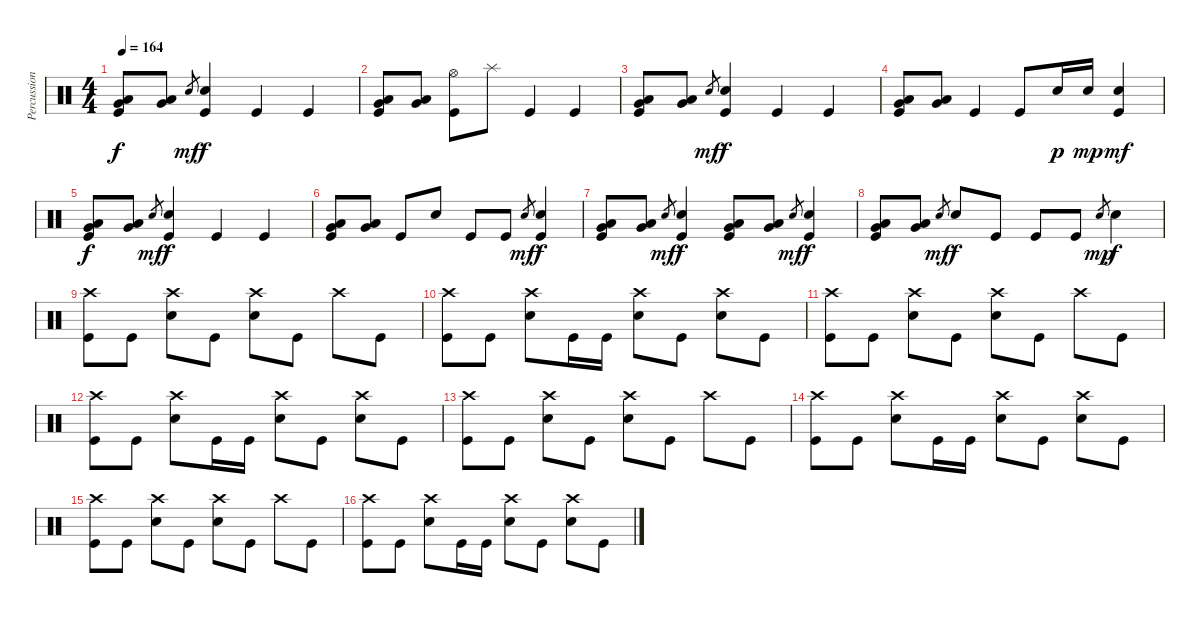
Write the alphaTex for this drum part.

\track ("Percussion" "Percussion") {instrument percussion}
\staff {score}
\articulation defaults
\ts (4 4)
\tempo 164
\clef neutral
\ks c
("Low Tom (hit)" "Very Low Tom (hit)" "Kick (hit)").8{dy f} ("Low Tom (hit)" "Very Low Tom (hit)").8 "Electric Snare (hit)".8{gr dy mf} ("Electric Snare (hit)" "Kick (hit)").4{dy f} "Kick (hit)".4 "Kick (hit)".4 |
("Low Tom (hit)" "Very Low Tom (hit)" "Kick (hit)").8 ("Low Tom (hit)" "Very Low Tom (hit)").8 ("Hi-Hat (open)" "Kick (hit)").8 "Splash (hit)".8 "Kick (hit)".4 "Kick (hit)".4 |
("Low Tom (hit)" "Very Low Tom (hit)" "Kick (hit)").8 ("Low Tom (hit)" "Very Low Tom (hit)").8 "Electric Snare (hit)".8{gr dy mf} ("Electric Snare (hit)" "Kick (hit)").4{dy f} "Kick (hit)".4 "Kick (hit)".4 |
("Low Tom (hit)" "Very Low Tom (hit)" "Kick (hit)").8 ("Low Tom (hit)" "Very Low Tom (hit)").8 "Kick (hit)".4 "Kick (hit)".8 "Electric Snare (hit)".16{dy p} "Electric Snare (hit)".16{dy mp} ("Electric Snare (hit)" "Kick (hit)").4{dy mf} |
("Low Tom (hit)" "Very Low Tom (hit)" "Kick (hit)").8{dy f} ("Low Tom (hit)" "Very Low Tom (hit)").8 "Electric Snare (hit)".8{gr dy mf} ("Electric Snare (hit)" "Kick (hit)").4{dy f} "Kick (hit)".4 "Kick (hit)".4 |
("Low Tom (hit)" "Very Low Tom (hit)" "Kick (hit)").8 ("Low Tom (hit)" "Very Low Tom (hit)").8 "Kick (hit)".8 "Electric Snare (hit)".8 "Kick (hit)".8 "Kick (hit)".8 "Electric Snare (hit)".8{gr dy mf} ("Electric Snare (hit)" "Kick (hit)").4{dy f} |
("Low Tom (hit)" "Very Low Tom (hit)" "Kick (hit)").8 ("Low Tom (hit)" "Very Low Tom (hit)").8 "Electric Snare (hit)".8{gr dy mf} ("Electric Snare (hit)" "Kick (hit)").4{dy f} ("Low Tom (hit)" "Very Low Tom (hit)" "Kick (hit)").8 ("Low Tom (hit)" "Very Low Tom (hit)").8 "Electric Snare (hit)".8{gr dy mf} ("Electric Snare (hit)" "Kick (hit)").4{dy f} |
("Low Tom (hit)" "Very Low Tom (hit)" "Kick (hit)").8 ("Low Tom (hit)" "Very Low Tom (hit)").8 "Electric Snare (hit)".8{gr dy mf} "Electric Snare (hit)".8{dy f} "Kick (hit)".8 "Kick (hit)".8 "Kick (hit)".8 "Electric Snare (hit)".8{gr dy mp} "Electric Snare (hit)".4{dy f} |
("Crash high (hit)" "Kick (hit)").8 "Kick (hit)".8 ("Crash high (hit)" "Electric Snare (hit)").8 "Kick (hit)".8 ("Crash high (hit)" "Electric Snare (hit)").8 "Kick (hit)".8 "Crash high (hit)".8 "Kick (hit)".8 |
("Crash high (hit)" "Kick (hit)").8 "Kick (hit)".8 ("Crash high (hit)" "Electric Snare (hit)").8 "Kick (hit)".16 "Kick (hit)".16 ("Crash high (hit)" "Electric Snare (hit)").8 "Kick (hit)".8 ("Crash high (hit)" "Electric Snare (hit)").8 "Kick (hit)".8 |
("Crash high (hit)" "Kick (hit)").8 "Kick (hit)".8 ("Crash high (hit)" "Electric Snare (hit)").8 "Kick (hit)".8 ("Crash high (hit)" "Electric Snare (hit)").8 "Kick (hit)".8 "Crash high (hit)".8 "Kick (hit)".8 |
("Crash high (hit)" "Kick (hit)").8 "Kick (hit)".8 ("Crash high (hit)" "Electric Snare (hit)").8 "Kick (hit)".16 "Kick (hit)".16 ("Crash high (hit)" "Electric Snare (hit)").8 "Kick (hit)".8 ("Crash high (hit)" "Electric Snare (hit)").8 "Kick (hit)".8 |
("Crash high (hit)" "Kick (hit)").8 "Kick (hit)".8 ("Crash high (hit)" "Electric Snare (hit)").8 "Kick (hit)".8 ("Crash high (hit)" "Electric Snare (hit)").8 "Kick (hit)".8 "Crash high (hit)".8 "Kick (hit)".8 |
("Crash high (hit)" "Kick (hit)").8 "Kick (hit)".8 ("Crash high (hit)" "Electric Snare (hit)").8 "Kick (hit)".16 "Kick (hit)".16 ("Crash high (hit)" "Electric Snare (hit)").8 "Kick (hit)".8 ("Crash high (hit)" "Electric Snare (hit)").8 "Kick (hit)".8 |
("Crash high (hit)" "Kick (hit)").8 "Kick (hit)".8 ("Crash high (hit)" "Electric Snare (hit)").8 "Kick (hit)".8 ("Crash high (hit)" "Electric Snare (hit)").8 "Kick (hit)".8 "Crash high (hit)".8 "Kick (hit)".8 |
("Crash high (hit)" "Kick (hit)").8 "Kick (hit)".8 ("Crash high (hit)" "Electric Snare (hit)").8 "Kick (hit)".16 "Kick (hit)".16 ("Crash high (hit)" "Electric Snare (hit)").8 "Kick (hit)".8 ("Crash high (hit)" "Electric Snare (hit)").8 "Kick (hit)".8
